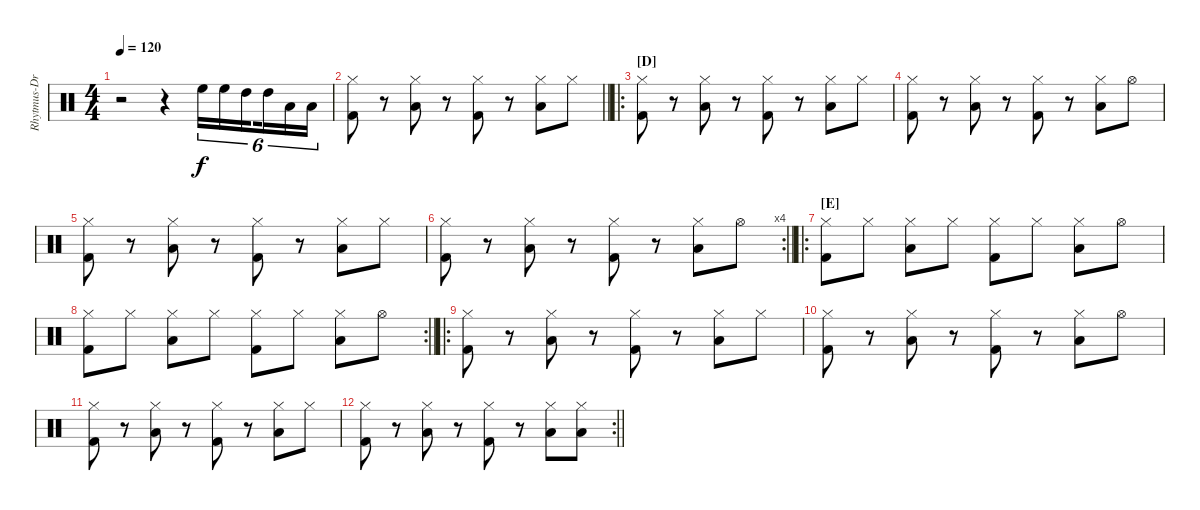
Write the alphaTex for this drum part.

\track ("Rhytmus-Drum" "Rhytmus-Dr") {instrument percussion}
\staff {score}
\articulation defaults
\ts (4 4)
\tempo 120
\clef neutral
\ks c
r.2{dy f} r.4 "High Floor Tom (hit)".16{tu (6 4)} "High Floor Tom (hit)".16{tu (6 4)} "High Tom (hit)".16{tu (6 4) beam splitsecondary} "High Tom (hit)".16{tu (6 4)} "Low Tom (hit)".16{tu (6 4)} "Low Tom (hit)".16{tu (6 4)} |
\barLineRight lightlight
("Hi-Hat (closed)" "Kick (hit) 2").8 r.8 ("Low Tom (hit)" "Hi-Hat (closed)").8 r.8 ("Hi-Hat (closed)" "Kick (hit) 2").8 r.8 ("Low Tom (hit)" "Hi-Hat (closed)").8 "Hi-Hat (closed)".8 |
\ro
\section ("" "[D]")
("Hi-Hat (closed)" "Kick (hit) 2").8 r.8 ("Low Tom (hit)" "Hi-Hat (closed)").8 r.8 ("Hi-Hat (closed)" "Kick (hit) 2").8 r.8 ("Low Tom (hit)" "Hi-Hat (closed)").8 "Hi-Hat (closed)".8 |
("Hi-Hat (closed)" "Kick (hit) 2").8 r.8 ("Low Tom (hit)" "Hi-Hat (closed)").8 r.8 ("Hi-Hat (closed)" "Kick (hit) 2").8 r.8 ("Low Tom (hit)" "Hi-Hat (closed)").8 "Hi-Hat (open)".8 |
("Hi-Hat (closed)" "Kick (hit) 2").8 r.8 ("Low Tom (hit)" "Hi-Hat (closed)").8 r.8 ("Hi-Hat (closed)" "Kick (hit) 2").8 r.8 ("Low Tom (hit)" "Hi-Hat (closed)").8 "Hi-Hat (closed)".8 |
\rc 4
\barLineRight lightlight
("Hi-Hat (closed)" "Kick (hit) 2").8 r.8 ("Low Tom (hit)" "Hi-Hat (closed)").8 r.8 ("Hi-Hat (closed)" "Kick (hit) 2").8 r.8 ("Low Tom (hit)" "Hi-Hat (closed)").8 "Hi-Hat (open)".8 |
\ro
\section ("" "[E]")
("Hi-Hat (closed)" "Kick (hit) 2").8 "Hi-Hat (closed)".8 ("Low Tom (hit)" "Hi-Hat (closed)").8 "Hi-Hat (closed)".8 ("Hi-Hat (closed)" "Kick (hit) 2").8 "Hi-Hat (closed)".8 ("Low Tom (hit)" "Hi-Hat (closed)").8 "Hi-Hat (open)".8 |
\rc 2
\barLineRight lightlight
("Hi-Hat (closed)" "Kick (hit) 2").8 "Hi-Hat (closed)".8 ("Low Tom (hit)" "Hi-Hat (closed)").8 "Hi-Hat (closed)".8 ("Hi-Hat (closed)" "Kick (hit) 2").8 "Hi-Hat (closed)".8 ("Low Tom (hit)" "Hi-Hat (closed)").8 "Hi-Hat (open)".8 |
\ro
("Hi-Hat (closed)" "Kick (hit) 2").8 r.8 ("Low Tom (hit)" "Hi-Hat (closed)").8 r.8 ("Hi-Hat (closed)" "Kick (hit) 2").8 r.8 ("Low Tom (hit)" "Hi-Hat (closed)").8 "Hi-Hat (closed)".8 |
("Hi-Hat (closed)" "Kick (hit) 2").8 r.8 ("Low Tom (hit)" "Hi-Hat (closed)").8 r.8 ("Hi-Hat (closed)" "Kick (hit) 2").8 r.8 ("Low Tom (hit)" "Hi-Hat (closed)").8 "Hi-Hat (open)".8 |
("Hi-Hat (closed)" "Kick (hit) 2").8 r.8 ("Low Tom (hit)" "Hi-Hat (closed)").8 r.8 ("Hi-Hat (closed)" "Kick (hit) 2").8 r.8 ("Low Tom (hit)" "Hi-Hat (closed)").8 "Hi-Hat (closed)".8 |
\rc 2
\barLineRight lightlight
("Hi-Hat (closed)" "Kick (hit) 2").8 r.8 ("Low Tom (hit)" "Hi-Hat (closed)").8 r.8 ("Hi-Hat (closed)" "Kick (hit) 2").8 r.8 ("Low Tom (hit)" "Hi-Hat (closed)").8 ("Low Tom (hit)" "Hi-Hat (closed)").8
